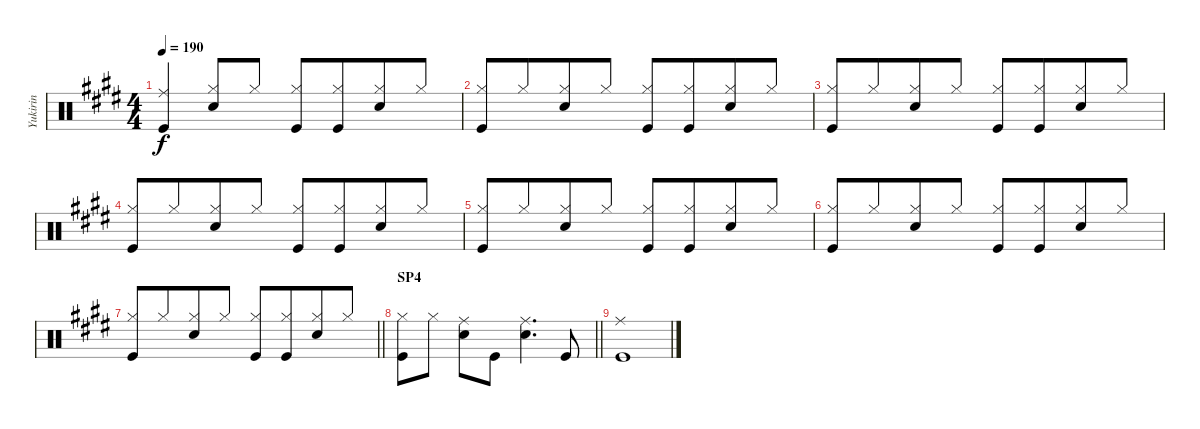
\track ("Yukirin" "Yukirin") {mute instrument percussion}
\staff {score}
\articulation defaults
\ts (4 4)
\tempo 190
\clef neutral
\ks e
("Ride (middle)" "Kick (hit)").4{dy f beam Up} ("Hi-Hat (closed)" "Snare (hit) 2").8{beam Up} "Hi-Hat (closed)".8{beam Up} ("Hi-Hat (closed)" "Kick (hit)").8{beam Up} ("Hi-Hat (closed)" "Kick (hit)").8{beam Up beam merge} ("Hi-Hat (closed)" "Snare (hit) 2").8{beam Up} "Hi-Hat (closed)".8{beam Up} |
("Hi-Hat (closed)" "Kick (hit)").8{beam Up} "Hi-Hat (closed)".8{beam Up beam merge} ("Hi-Hat (closed)" "Snare (hit) 2").8{beam Up} "Hi-Hat (closed)".8{beam Up} ("Hi-Hat (closed)" "Kick (hit)").8{beam Up} ("Hi-Hat (closed)" "Kick (hit)").8{beam Up beam merge} ("Hi-Hat (closed)" "Snare (hit) 2").8{beam Up} "Hi-Hat (closed)".8{beam Up} |
("Hi-Hat (closed)" "Kick (hit)").8{beam Up} "Hi-Hat (closed)".8{beam Up beam merge} ("Hi-Hat (closed)" "Snare (hit) 2").8{beam Up} "Hi-Hat (closed)".8{beam Up} ("Hi-Hat (closed)" "Kick (hit)").8{beam Up} ("Hi-Hat (closed)" "Kick (hit)").8{beam Up beam merge} ("Hi-Hat (closed)" "Snare (hit) 2").8{beam Up} "Hi-Hat (closed)".8{beam Up} |
("Hi-Hat (closed)" "Kick (hit)").8{beam Up} "Hi-Hat (closed)".8{beam Up beam merge} ("Hi-Hat (closed)" "Snare (hit) 2").8{beam Up} "Hi-Hat (closed)".8{beam Up} ("Hi-Hat (closed)" "Kick (hit)").8{beam Up} ("Hi-Hat (closed)" "Kick (hit)").8{beam Up beam merge} ("Hi-Hat (closed)" "Snare (hit) 2").8{beam Up} "Hi-Hat (closed)".8{beam Up} |
("Hi-Hat (closed)" "Kick (hit)").8{beam Up} "Hi-Hat (closed)".8{beam Up beam merge} ("Hi-Hat (closed)" "Snare (hit) 2").8{beam Up} "Hi-Hat (closed)".8{beam Up} ("Hi-Hat (closed)" "Kick (hit)").8{beam Up} ("Hi-Hat (closed)" "Kick (hit)").8{beam Up beam merge} ("Hi-Hat (closed)" "Snare (hit) 2").8{beam Up} "Hi-Hat (closed)".8{beam Up} |
("Hi-Hat (closed)" "Kick (hit)").8{beam Up} "Hi-Hat (closed)".8{beam Up beam merge} ("Hi-Hat (closed)" "Snare (hit) 2").8{beam Up} "Hi-Hat (closed)".8{beam Up} ("Hi-Hat (closed)" "Kick (hit)").8{beam Up} ("Hi-Hat (closed)" "Kick (hit)").8{beam Up beam merge} ("Hi-Hat (closed)" "Snare (hit) 2").8{beam Up} "Hi-Hat (closed)".8{beam Up} |
\barLineRight lightlight
("Hi-Hat (closed)" "Kick (hit)").8{beam Up} "Hi-Hat (closed)".8{beam Up beam merge} ("Hi-Hat (closed)" "Snare (hit) 2").8{beam Up} "Hi-Hat (closed)".8{beam Up} ("Hi-Hat (closed)" "Kick (hit)").8{beam Up} ("Hi-Hat (closed)" "Kick (hit)").8{beam Up beam merge} ("Hi-Hat (closed)" "Snare (hit) 2").8{beam Up} "Hi-Hat (closed)".8{beam Up} |
\section ("" "SP4")
\barLineRight lightlight
("Hi-Hat (closed)" "Kick (hit)").8 "Hi-Hat (closed)".8 ("Ride (middle)" "Snare (hit) 2").8 "Kick (hit)".8 ("Ride (middle)" "Snare (hit) 2").4{d} "Kick (hit)".8 |
("Ride (middle)" "Kick (hit)").1
